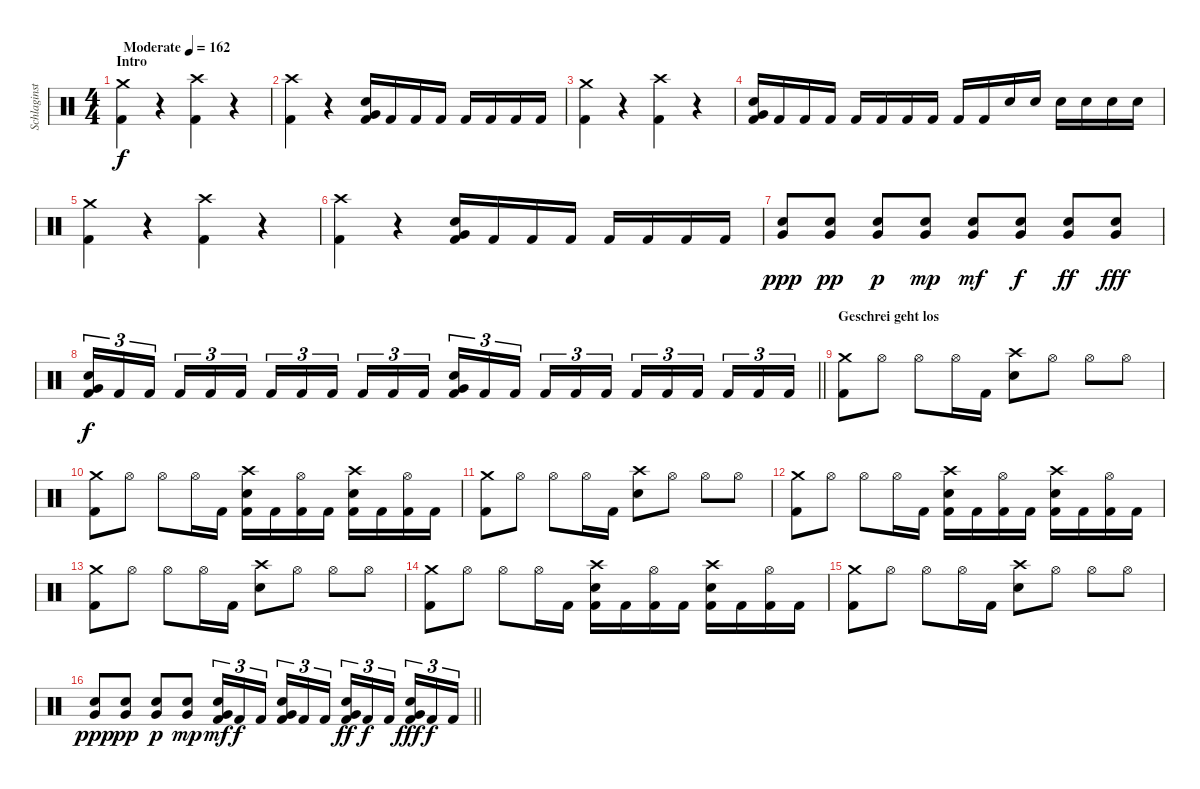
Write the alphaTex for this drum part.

\track ("Schlaginstrumente - Auswahl" "Schlaginst") {instrument percussion}
\staff {score}
\articulation defaults
\ts (4 4)
\section ("" "Intro")
\tempo (162 "Moderate")
\clef neutral
\ks c
("Crash medium (hit)" "Kick (hit) 2").4{dy f} r.4 ("Crash high (hit)" "Kick (hit) 2").4 r.4 |
("Crash high (hit)" "Kick (hit) 2").4 r.4 ("Very Low Tom (hit)" "Electric Snare (hit)" "Kick (hit) 2").16 "Kick (hit) 2".16 "Kick (hit) 2".16 "Kick (hit) 2".16 "Kick (hit) 2".16 "Kick (hit) 2".16 "Kick (hit) 2".16 "Kick (hit) 2".16 |
("Crash medium (hit)" "Kick (hit) 2").4 r.4 ("Crash high (hit)" "Kick (hit) 2").4 r.4 |
("Very Low Tom (hit)" "Electric Snare (hit)" "Kick (hit) 2").16 "Kick (hit) 2".16 "Kick (hit) 2".16 "Kick (hit) 2".16 "Kick (hit) 2".16 "Kick (hit) 2".16 "Kick (hit) 2".16 "Kick (hit) 2".16 "Kick (hit) 2".16 "Kick (hit) 2".16 "Electric Snare (hit)".16 "Electric Snare (hit)".16 "Electric Snare (hit)".16 "Electric Snare (hit)".16 "Electric Snare (hit)".16 "Electric Snare (hit)".16 |
("Crash medium (hit)" "Kick (hit) 2").4 r.4 ("Crash high (hit)" "Kick (hit) 2").4 r.4 |
("Crash high (hit)" "Kick (hit) 2").4 r.4 ("Very Low Tom (hit)" "Electric Snare (hit)" "Kick (hit) 2").16 "Kick (hit) 2".16 "Kick (hit) 2".16 "Kick (hit) 2".16 "Kick (hit) 2".16 "Kick (hit) 2".16 "Kick (hit) 2".16 "Kick (hit) 2".16 |
("Very Low Tom (hit)" "Electric Snare (hit)").8{dy ppp} ("Very Low Tom (hit)" "Electric Snare (hit)").8{dy pp} ("Very Low Tom (hit)" "Electric Snare (hit)").8{dy p} ("Very Low Tom (hit)" "Electric Snare (hit)").8{dy mp} ("Very Low Tom (hit)" "Electric Snare (hit)").8{dy mf} ("Very Low Tom (hit)" "Electric Snare (hit)").8{dy f} ("Very Low Tom (hit)" "Electric Snare (hit)").8{dy ff} ("Very Low Tom (hit)" "Electric Snare (hit)").8{dy fff} |
\barLineRight lightlight
("Very Low Tom (hit)" "Electric Snare (hit)" "Kick (hit) 2").16{tu (3 2) dy f} "Kick (hit) 2".16{tu (3 2)} "Kick (hit) 2".16{tu (3 2) beam splitsecondary} "Kick (hit) 2".16{tu (3 2)} "Kick (hit) 2".16{tu (3 2)} "Kick (hit) 2".16{tu (3 2)} "Kick (hit) 2".16{tu (3 2)} "Kick (hit) 2".16{tu (3 2)} "Kick (hit) 2".16{tu (3 2) beam splitsecondary} "Kick (hit) 2".16{tu (3 2)} "Kick (hit) 2".16{tu (3 2)} "Kick (hit) 2".16{tu (3 2)} ("Very Low Tom (hit)" "Electric Snare (hit)" "Kick (hit) 2").16{tu (3 2)} "Kick (hit) 2".16{tu (3 2)} "Kick (hit) 2".16{tu (3 2) beam splitsecondary} "Kick (hit) 2".16{tu (3 2)} "Kick (hit) 2".16{tu (3 2)} "Kick (hit) 2".16{tu (3 2)} "Kick (hit) 2".16{tu (3 2)} "Kick (hit) 2".16{tu (3 2)} "Kick (hit) 2".16{tu (3 2) beam splitsecondary} "Kick (hit) 2".16{tu (3 2)} "Kick (hit) 2".16{tu (3 2)} "Kick (hit) 2".16{tu (3 2)} |
\section ("" "Geschrei geht los")
("Crash medium (hit)" "Kick (hit) 2").8 "Hi-Hat (open)".8 "Hi-Hat (open)".8 "Hi-Hat (open)".16 "Kick (hit) 2".16 ("Crash high (hit)" "Electric Snare (hit)").8 "Hi-Hat (open)".8 "Hi-Hat (open)".8 "Hi-Hat (open)".8 |
("Crash medium (hit)" "Kick (hit) 2").8 "Hi-Hat (open)".8 "Hi-Hat (open)".8 "Hi-Hat (open)".16 "Kick (hit) 2".16 ("Crash high (hit)" "Electric Snare (hit)" "Kick (hit) 2").16 "Kick (hit) 2".16 ("Hi-Hat (open)" "Kick (hit) 2").16 "Kick (hit) 2".16 ("Crash high (hit)" "Electric Snare (hit)" "Kick (hit) 2").16 "Kick (hit) 2".16 ("Hi-Hat (open)" "Kick (hit) 2").16 "Kick (hit) 2".16 |
("Crash medium (hit)" "Kick (hit) 2").8 "Hi-Hat (open)".8 "Hi-Hat (open)".8 "Hi-Hat (open)".16 "Kick (hit) 2".16 ("Crash high (hit)" "Electric Snare (hit)").8 "Hi-Hat (open)".8 "Hi-Hat (open)".8 "Hi-Hat (open)".8 |
("Crash medium (hit)" "Kick (hit) 2").8 "Hi-Hat (open)".8 "Hi-Hat (open)".8 "Hi-Hat (open)".16 "Kick (hit) 2".16 ("Crash high (hit)" "Electric Snare (hit)" "Kick (hit) 2").16 "Kick (hit) 2".16 ("Hi-Hat (open)" "Kick (hit) 2").16 "Kick (hit) 2".16 ("Crash high (hit)" "Electric Snare (hit)" "Kick (hit) 2").16 "Kick (hit) 2".16 ("Hi-Hat (open)" "Kick (hit) 2").16 "Kick (hit) 2".16 |
("Crash medium (hit)" "Kick (hit) 2").8 "Hi-Hat (open)".8 "Hi-Hat (open)".8 "Hi-Hat (open)".16 "Kick (hit) 2".16 ("Crash high (hit)" "Electric Snare (hit)").8 "Hi-Hat (open)".8 "Hi-Hat (open)".8 "Hi-Hat (open)".8 |
("Crash medium (hit)" "Kick (hit) 2").8 "Hi-Hat (open)".8 "Hi-Hat (open)".8 "Hi-Hat (open)".16 "Kick (hit) 2".16 ("Crash high (hit)" "Electric Snare (hit)" "Kick (hit) 2").16 "Kick (hit) 2".16 ("Hi-Hat (open)" "Kick (hit) 2").16 "Kick (hit) 2".16 ("Crash high (hit)" "Electric Snare (hit)" "Kick (hit) 2").16 "Kick (hit) 2".16 ("Hi-Hat (open)" "Kick (hit) 2").16 "Kick (hit) 2".16 |
("Crash medium (hit)" "Kick (hit) 2").8 "Hi-Hat (open)".8 "Hi-Hat (open)".8 "Hi-Hat (open)".16 "Kick (hit) 2".16 ("Crash high (hit)" "Electric Snare (hit)").8 "Hi-Hat (open)".8 "Hi-Hat (open)".8 "Hi-Hat (open)".8 |
\barLineRight lightlight
("Very Low Tom (hit)" "Electric Snare (hit)").8{dy ppp} ("Very Low Tom (hit)" "Electric Snare (hit)").8{dy pp} ("Very Low Tom (hit)" "Electric Snare (hit)").8{dy p} ("Very Low Tom (hit)" "Electric Snare (hit)").8{dy mp} ("Very Low Tom (hit)" "Electric Snare (hit)" "Kick (hit) 2").16{tu (3 2) dy mf} "Kick (hit) 2".16{tu (3 2) dy f} "Kick (hit) 2".16{tu (3 2) beam splitsecondary} ("Very Low Tom (hit)" "Electric Snare (hit)" "Kick (hit) 2").16{tu (3 2)} "Kick (hit) 2".16{tu (3 2)} "Kick (hit) 2".16{tu (3 2)} ("Very Low Tom (hit)" "Electric Snare (hit)" "Kick (hit) 2").16{tu (3 2) dy ff} "Kick (hit) 2".16{tu (3 2) dy f} "Kick (hit) 2".16{tu (3 2) beam splitsecondary} ("Very Low Tom (hit)" "Electric Snare (hit)" "Kick (hit) 2").16{tu (3 2) dy fff} "Kick (hit) 2".16{tu (3 2) dy f} "Kick (hit) 2".16{tu (3 2)}
